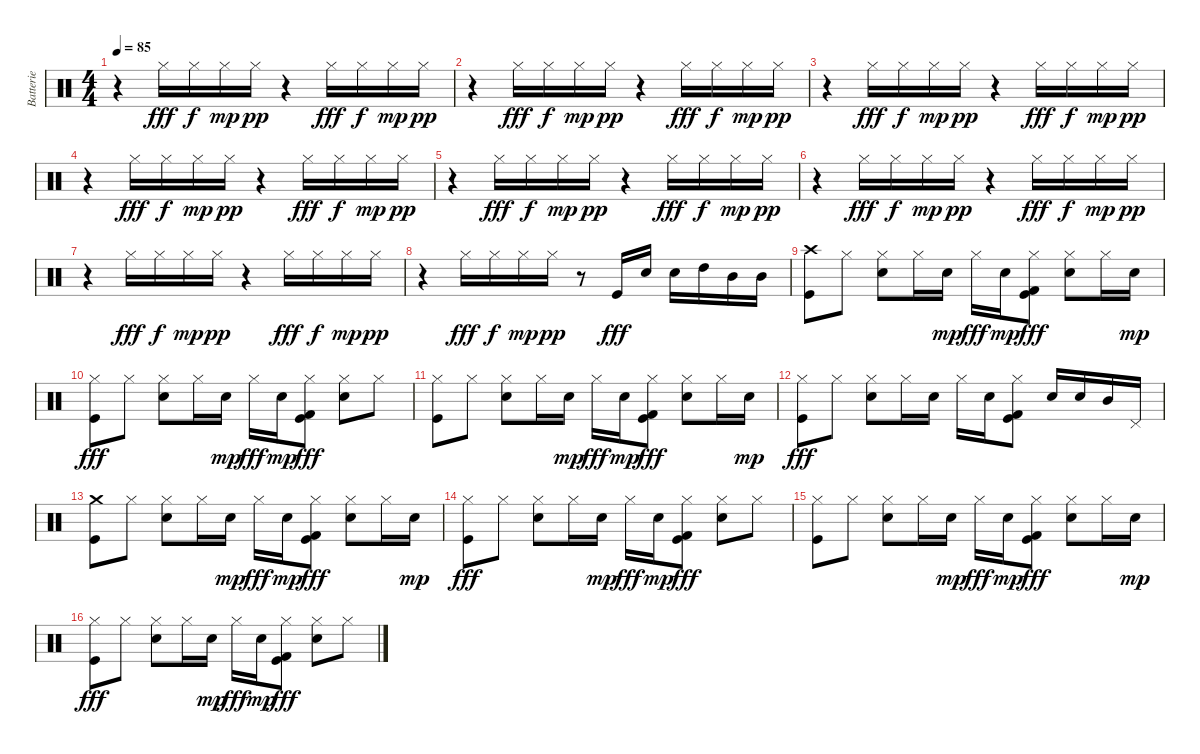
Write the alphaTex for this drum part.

\track ("Batterie" "Batterie") {instrument percussion}
\staff {score}
\articulation defaults
\ts (4 4)
\tempo 85
\clef neutral
\ks c
r.4{dy pp} "Hi-Hat (closed)".16{dy fff} "Hi-Hat (closed)".16{dy f} "Hi-Hat (closed)".16{dy mp} "Hi-Hat (closed)".16{dy pp} r.4 "Hi-Hat (closed)".16{dy fff} "Hi-Hat (closed)".16{dy f} "Hi-Hat (closed)".16{dy mp} "Hi-Hat (closed)".16{dy pp} |
r.4 "Hi-Hat (closed)".16{dy fff} "Hi-Hat (closed)".16{dy f} "Hi-Hat (closed)".16{dy mp} "Hi-Hat (closed)".16{dy pp} r.4 "Hi-Hat (closed)".16{dy fff} "Hi-Hat (closed)".16{dy f} "Hi-Hat (closed)".16{dy mp} "Hi-Hat (closed)".16{dy pp} |
r.4 "Hi-Hat (closed)".16{dy fff} "Hi-Hat (closed)".16{dy f} "Hi-Hat (closed)".16{dy mp} "Hi-Hat (closed)".16{dy pp} r.4 "Hi-Hat (closed)".16{dy fff} "Hi-Hat (closed)".16{dy f} "Hi-Hat (closed)".16{dy mp} "Hi-Hat (closed)".16{dy pp} |
r.4 "Hi-Hat (closed)".16{dy fff} "Hi-Hat (closed)".16{dy f} "Hi-Hat (closed)".16{dy mp} "Hi-Hat (closed)".16{dy pp} r.4 "Hi-Hat (closed)".16{dy fff} "Hi-Hat (closed)".16{dy f} "Hi-Hat (closed)".16{dy mp} "Hi-Hat (closed)".16{dy pp} |
r.4 "Hi-Hat (closed)".16{dy fff} "Hi-Hat (closed)".16{dy f} "Hi-Hat (closed)".16{dy mp} "Hi-Hat (closed)".16{dy pp} r.4 "Hi-Hat (closed)".16{dy fff} "Hi-Hat (closed)".16{dy f} "Hi-Hat (closed)".16{dy mp} "Hi-Hat (closed)".16{dy pp} |
r.4 "Hi-Hat (closed)".16{dy fff} "Hi-Hat (closed)".16{dy f} "Hi-Hat (closed)".16{dy mp} "Hi-Hat (closed)".16{dy pp} r.4 "Hi-Hat (closed)".16{dy fff} "Hi-Hat (closed)".16{dy f} "Hi-Hat (closed)".16{dy mp} "Hi-Hat (closed)".16{dy pp} |
r.4 "Hi-Hat (closed)".16{dy fff} "Hi-Hat (closed)".16{dy f} "Hi-Hat (closed)".16{dy mp} "Hi-Hat (closed)".16{dy pp} r.4 "Hi-Hat (closed)".16{dy fff} "Hi-Hat (closed)".16{dy f} "Hi-Hat (closed)".16{dy mp} "Hi-Hat (closed)".16{dy pp} |
r.4 "Hi-Hat (closed)".16{dy fff} "Hi-Hat (closed)".16{dy f} "Hi-Hat (closed)".16{dy mp} "Hi-Hat (closed)".16{dy pp} r.8 "Kick (hit)".16{dy fff} "Electric Snare (hit)".16 "Electric Snare (hit)".16 "High Tom (hit)".16 "Mid Tom (hit)".16 "Mid Tom (hit)".16 |
("Crash high (hit)" "Kick (hit)").8 "Hi-Hat (closed)".8 ("Hi-Hat (closed)" "Electric Snare (hit)").8 "Hi-Hat (closed)".16 "Electric Snare (hit)".16{dy mp} "Hi-Hat (closed)".16{dy fff} "Electric Snare (hit)".16{dy mp} ("Hi-Hat (closed)" "Kick (hit)" "Kick (hit) 2").8{dy fff} ("Hi-Hat (closed)" "Electric Snare (hit)").8 "Hi-Hat (closed)".16 "Electric Snare (hit)".16{dy mp} |
("Hi-Hat (closed)" "Kick (hit)").8{dy fff} "Hi-Hat (closed)".8 ("Hi-Hat (closed)" "Electric Snare (hit)").8 "Hi-Hat (closed)".16 "Electric Snare (hit)".16{dy mp} "Hi-Hat (closed)".16{dy fff} "Electric Snare (hit)".16{dy mp} ("Hi-Hat (closed)" "Kick (hit)" "Kick (hit) 2").8{dy fff} ("Hi-Hat (closed)" "Electric Snare (hit)").8 "Hi-Hat (closed)".8 |
("Hi-Hat (closed)" "Kick (hit)").8 "Hi-Hat (closed)".8 ("Hi-Hat (closed)" "Electric Snare (hit)").8 "Hi-Hat (closed)".16 "Electric Snare (hit)".16{dy mp} "Hi-Hat (closed)".16{dy fff} "Electric Snare (hit)".16{dy mp} ("Hi-Hat (closed)" "Kick (hit)" "Kick (hit) 2").8{dy fff} ("Hi-Hat (closed)" "Electric Snare (hit)").8 "Hi-Hat (closed)".16 "Electric Snare (hit)".16{dy mp} |
("Hi-Hat (closed)" "Kick (hit)").8{dy fff} "Hi-Hat (closed)".8 ("Hi-Hat (closed)" "Electric Snare (hit)").8 "Hi-Hat (closed)".16 "Electric Snare (hit)".16 "Hi-Hat (closed)".16 "Electric Snare (hit)".16 ("Hi-Hat (closed)" "Kick (hit)" "Kick (hit) 2").8 "Electric Snare (hit)".16 "Electric Snare (hit)".16 "Mid Tom (hit)".16 "Pedal Hi-Hat (hit)".16 |
("Crash medium (hit)" "Kick (hit)").8 "Hi-Hat (closed)".8 ("Hi-Hat (closed)" "Electric Snare (hit)").8 "Hi-Hat (closed)".16 "Electric Snare (hit)".16{dy mp} "Hi-Hat (closed)".16{dy fff} "Electric Snare (hit)".16{dy mp} ("Hi-Hat (closed)" "Kick (hit)" "Kick (hit) 2").8{dy fff} ("Hi-Hat (closed)" "Electric Snare (hit)").8 "Hi-Hat (closed)".16 "Electric Snare (hit)".16{dy mp} |
("Hi-Hat (closed)" "Kick (hit)").8{dy fff} "Hi-Hat (closed)".8 ("Hi-Hat (closed)" "Electric Snare (hit)").8 "Hi-Hat (closed)".16 "Electric Snare (hit)".16{dy mp} "Hi-Hat (closed)".16{dy fff} "Electric Snare (hit)".16{dy mp} ("Hi-Hat (closed)" "Kick (hit)" "Kick (hit) 2").8{dy fff} ("Hi-Hat (closed)" "Electric Snare (hit)").8 "Hi-Hat (closed)".8 |
("Hi-Hat (closed)" "Kick (hit)").8 "Hi-Hat (closed)".8 ("Hi-Hat (closed)" "Electric Snare (hit)").8 "Hi-Hat (closed)".16 "Electric Snare (hit)".16{dy mp} "Hi-Hat (closed)".16{dy fff} "Electric Snare (hit)".16{dy mp} ("Hi-Hat (closed)" "Kick (hit)" "Kick (hit) 2").8{dy fff} ("Hi-Hat (closed)" "Electric Snare (hit)").8 "Hi-Hat (closed)".16 "Electric Snare (hit)".16{dy mp} |
("Hi-Hat (closed)" "Kick (hit)").8{dy fff} "Hi-Hat (closed)".8 ("Hi-Hat (closed)" "Electric Snare (hit)").8 "Hi-Hat (closed)".16 "Electric Snare (hit)".16{dy mp} "Hi-Hat (closed)".16{dy fff} "Electric Snare (hit)".16{dy mp} ("Hi-Hat (closed)" "Kick (hit)" "Kick (hit) 2").8{dy fff} ("Hi-Hat (closed)" "Electric Snare (hit)").8 "Hi-Hat (closed)".8
